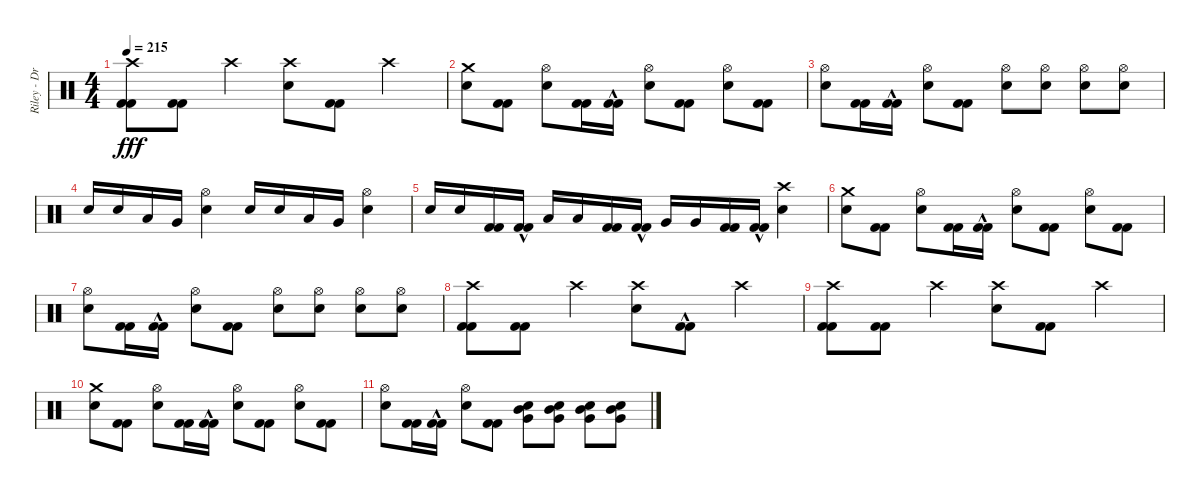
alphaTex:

\track ("Riley - Drums" "Riley - Dr") {instrument percussion}
\staff {score}
\articulation defaults
\ts (4 4)
\tempo 215
\clef neutral
\ks c
("Kick (hit) 2" "Kick (hit) 2" "Crash high (hit)").8{dy fff} ("Kick (hit) 2" "Kick (hit) 2").8 "Crash high (hit)".4 ("Electric Snare (hit)" "Crash high (hit)").8 ("Kick (hit) 2" "Kick (hit) 2").8 "Crash high (hit)".4 |
("Electric Snare (hit)" "Crash medium (hit)").8 ("Kick (hit) 2" "Kick (hit) 2").8 ("Electric Snare (hit)" "Hi-Hat (open)").8 ("Kick (hit) 2" "Kick (hit) 2").16 ("Kick (hit) 2"{hac} "Kick (hit) 2"{hac}).16 ("Electric Snare (hit)" "Hi-Hat (open)").8 ("Kick (hit) 2" "Kick (hit) 2").8 ("Electric Snare (hit)" "Hi-Hat (open)").8 ("Kick (hit) 2" "Kick (hit) 2").8 |
("Electric Snare (hit)" "Hi-Hat (open)").8 ("Kick (hit) 2" "Kick (hit) 2").16 ("Kick (hit) 2"{hac} "Kick (hit) 2"{hac}).16 ("Electric Snare (hit)" "Hi-Hat (open)").8 ("Kick (hit) 2" "Kick (hit) 2").8 ("Electric Snare (hit)" "Hi-Hat (open)").8 ("Electric Snare (hit)" "Hi-Hat (open)").8 ("Electric Snare (hit)" "Hi-Hat (open)").8 ("Electric Snare (hit)" "Hi-Hat (open)").8 |
"Electric Snare (hit)".16 "Electric Snare (hit)".16 "Low Tom (hit)".16 "Very Low Tom (hit)".16 ("Electric Snare (hit)" "Hi-Hat (open)").4 "Electric Snare (hit)".16 "Electric Snare (hit)".16 "Low Tom (hit)".16 "Very Low Tom (hit)".16 ("Electric Snare (hit)" "Hi-Hat (open)").4 |
"Electric Snare (hit)".16 "Electric Snare (hit)".16 ("Kick (hit) 2" "Kick (hit) 2").16 ("Kick (hit) 2"{hac} "Kick (hit) 2"{hac}).16 "Low Tom (hit)".16 "Low Tom (hit)".16 ("Kick (hit) 2" "Kick (hit) 2").16 ("Kick (hit) 2"{hac} "Kick (hit) 2"{hac}).16 "Very Low Tom (hit)".16 "Very Low Tom (hit)".16 ("Kick (hit) 2" "Kick (hit) 2").16 ("Kick (hit) 2"{hac} "Kick (hit) 2"{hac}).16 ("Electric Snare (hit)" "Crash high (hit)").4 |
("Electric Snare (hit)" "Crash medium (hit)").8 ("Kick (hit) 2" "Kick (hit) 2").8 ("Electric Snare (hit)" "Hi-Hat (open)").8 ("Kick (hit) 2" "Kick (hit) 2").16 ("Kick (hit) 2"{hac} "Kick (hit) 2"{hac}).16 ("Electric Snare (hit)" "Hi-Hat (open)").8 ("Kick (hit) 2" "Kick (hit) 2").8 ("Electric Snare (hit)" "Hi-Hat (open)").8 ("Kick (hit) 2" "Kick (hit) 2").8 |
("Electric Snare (hit)" "Hi-Hat (open)").8 ("Kick (hit) 2" "Kick (hit) 2").16 ("Kick (hit) 2"{hac} "Kick (hit) 2"{hac}).16 ("Electric Snare (hit)" "Hi-Hat (open)").8 ("Kick (hit) 2" "Kick (hit) 2").8 ("Electric Snare (hit)" "Hi-Hat (open)").8 ("Electric Snare (hit)" "Hi-Hat (open)").8 ("Electric Snare (hit)" "Hi-Hat (open)").8 ("Electric Snare (hit)" "Hi-Hat (open)").8 |
("Kick (hit) 2" "Kick (hit) 2" "Crash high (hit)").8 ("Kick (hit) 2" "Kick (hit) 2").8 "Crash high (hit)".4 ("Electric Snare (hit)" "Crash high (hit)").8 ("Kick (hit) 2"{hac} "Kick (hit) 2"{hac}).8 "Crash high (hit)".4 |
("Kick (hit) 2" "Kick (hit) 2" "Crash high (hit)").8 ("Kick (hit) 2" "Kick (hit) 2").8 "Crash high (hit)".4 ("Electric Snare (hit)" "Crash high (hit)").8 ("Kick (hit) 2" "Kick (hit) 2").8 "Crash high (hit)".4 |
("Electric Snare (hit)" "Crash medium (hit)").8 ("Kick (hit) 2" "Kick (hit) 2").8 ("Electric Snare (hit)" "Hi-Hat (open)").8 ("Kick (hit) 2" "Kick (hit) 2").16 ("Kick (hit) 2"{hac} "Kick (hit) 2"{hac}).16 ("Electric Snare (hit)" "Hi-Hat (open)").8 ("Kick (hit) 2" "Kick (hit) 2").8 ("Electric Snare (hit)" "Hi-Hat (open)").8 ("Kick (hit) 2" "Kick (hit) 2").8 |
("Electric Snare (hit)" "Hi-Hat (open)").8 ("Kick (hit) 2" "Kick (hit) 2").16 ("Kick (hit) 2"{hac} "Kick (hit) 2"{hac}).16 ("Electric Snare (hit)" "Hi-Hat (open)").8 ("Kick (hit) 2" "Kick (hit) 2").8 ("Electric Snare (hit)" "Very Low Tom (hit)" "Mid Tom (hit)").8 ("Electric Snare (hit)" "Very Low Tom (hit)" "Mid Tom (hit)").8 ("Electric Snare (hit)" "Very Low Tom (hit)" "Mid Tom (hit)").8 ("Electric Snare (hit)" "Very Low Tom (hit)" "Mid Tom (hit)").8
